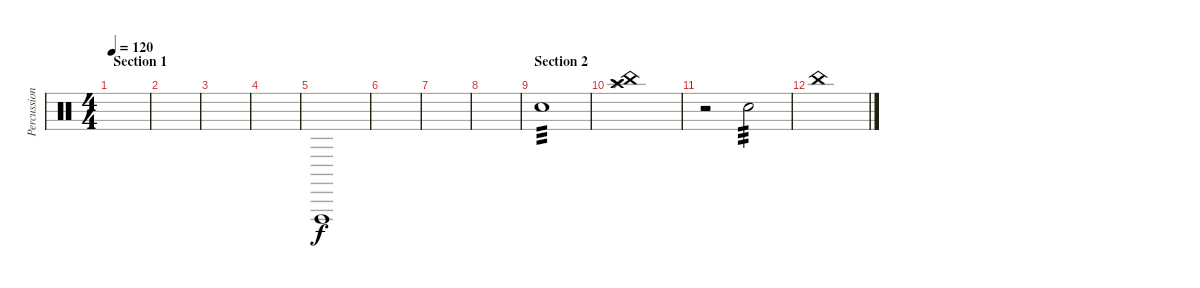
\track ("Percussion" "Percussion") {instrument percussion}
\staff {score}
\articulation defaults
\ts (4 4)
\section ("" "Section 1")
\tempo 120
\clef neutral
\ks c
|
|
|
|
"Vibraslap (hit)".1 |
|
|
|
\section ("" "Section 2")
"Snare (hit) 2".1{tp 3 volume 11} |
("Splash (hit)" "China (hit)" "Crash high (hit)").1{volume 2} |
r.2{volume 9} "Snare (hit) 2".2{tp 3} |
"China (hit)".1
